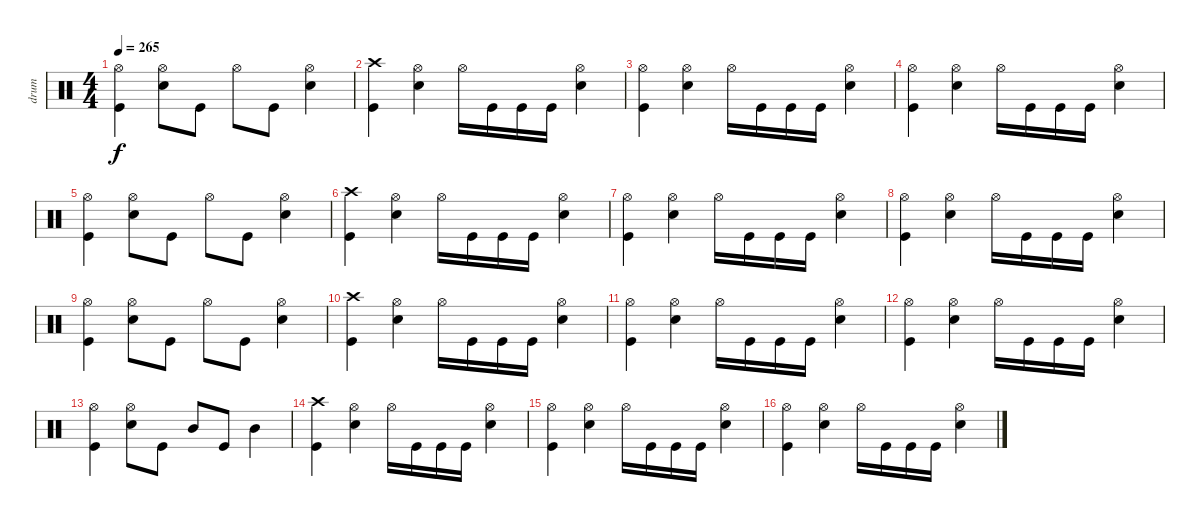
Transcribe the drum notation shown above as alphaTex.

\track ("drum" "drum") {instrument percussion}
\staff {score}
\articulation defaults
\ts (4 4)
\tempo 265
\clef neutral
\ks c
("Kick (hit)" "Hi-Hat (open)").4{dy f} ("Electric Snare (hit)" "Hi-Hat (open)").8 "Kick (hit)".8 "Hi-Hat (open)".8 "Kick (hit)".8 ("Electric Snare (hit)" "Hi-Hat (open)").4 |
("Kick (hit)" "Crash high (hit)").4 ("Electric Snare (hit)" "Hi-Hat (open)").4 "Hi-Hat (open)".16 "Kick (hit)".16 "Kick (hit)".16 "Kick (hit)".16 ("Electric Snare (hit)" "Hi-Hat (open)").4 |
("Kick (hit)" "Hi-Hat (open)").4 ("Electric Snare (hit)" "Hi-Hat (open)").4 "Hi-Hat (open)".16 "Kick (hit)".16 "Kick (hit)".16 "Kick (hit)".16 ("Electric Snare (hit)" "Hi-Hat (open)").4 |
("Kick (hit)" "Hi-Hat (open)").4 ("Electric Snare (hit)" "Hi-Hat (open)").4 "Hi-Hat (open)".16 "Kick (hit)".16 "Kick (hit)".16 "Kick (hit)".16 ("Electric Snare (hit)" "Hi-Hat (open)").4 |
("Kick (hit)" "Hi-Hat (open)").4 ("Electric Snare (hit)" "Hi-Hat (open)").8 "Kick (hit)".8 "Hi-Hat (open)".8 "Kick (hit)".8 ("Electric Snare (hit)" "Hi-Hat (open)").4 |
("Kick (hit)" "Crash high (hit)").4 ("Electric Snare (hit)" "Hi-Hat (open)").4 "Hi-Hat (open)".16 "Kick (hit)".16 "Kick (hit)".16 "Kick (hit)".16 ("Electric Snare (hit)" "Hi-Hat (open)").4 |
("Kick (hit)" "Hi-Hat (open)").4 ("Electric Snare (hit)" "Hi-Hat (open)").4 "Hi-Hat (open)".16 "Kick (hit)".16 "Kick (hit)".16 "Kick (hit)".16 ("Electric Snare (hit)" "Hi-Hat (open)").4 |
("Kick (hit)" "Hi-Hat (open)").4 ("Electric Snare (hit)" "Hi-Hat (open)").4 "Hi-Hat (open)".16 "Kick (hit)".16 "Kick (hit)".16 "Kick (hit)".16 ("Electric Snare (hit)" "Hi-Hat (open)").4 |
("Kick (hit)" "Hi-Hat (open)").4 ("Electric Snare (hit)" "Hi-Hat (open)").8 "Kick (hit)".8 "Hi-Hat (open)".8 "Kick (hit)".8 ("Electric Snare (hit)" "Hi-Hat (open)").4 |
("Kick (hit)" "Crash high (hit)").4 ("Electric Snare (hit)" "Hi-Hat (open)").4 "Hi-Hat (open)".16 "Kick (hit)".16 "Kick (hit)".16 "Kick (hit)".16 ("Electric Snare (hit)" "Hi-Hat (open)").4 |
("Kick (hit)" "Hi-Hat (open)").4 ("Electric Snare (hit)" "Hi-Hat (open)").4 "Hi-Hat (open)".16 "Kick (hit)".16 "Kick (hit)".16 "Kick (hit)".16 ("Electric Snare (hit)" "Hi-Hat (open)").4 |
("Kick (hit)" "Hi-Hat (open)").4 ("Electric Snare (hit)" "Hi-Hat (open)").4 "Hi-Hat (open)".16 "Kick (hit)".16 "Kick (hit)".16 "Kick (hit)".16 ("Electric Snare (hit)" "Hi-Hat (open)").4 |
("Kick (hit)" "Hi-Hat (open)").4 ("Electric Snare (hit)" "Hi-Hat (open)").8 "Kick (hit)".8 "Mid Tom (hit)".8 "Kick (hit)".8 "Mid Tom (hit)".4 |
("Kick (hit)" "Crash high (hit)").4 ("Electric Snare (hit)" "Hi-Hat (open)").4 "Hi-Hat (open)".16 "Kick (hit)".16 "Kick (hit)".16 "Kick (hit)".16 ("Electric Snare (hit)" "Hi-Hat (open)").4 |
("Kick (hit)" "Hi-Hat (open)").4 ("Electric Snare (hit)" "Hi-Hat (open)").4 "Hi-Hat (open)".16 "Kick (hit)".16 "Kick (hit)".16 "Kick (hit)".16 ("Electric Snare (hit)" "Hi-Hat (open)").4 |
("Kick (hit)" "Hi-Hat (open)").4 ("Electric Snare (hit)" "Hi-Hat (open)").4 "Hi-Hat (open)".16 "Kick (hit)".16 "Kick (hit)".16 "Kick (hit)".16 ("Electric Snare (hit)" "Hi-Hat (open)").4
